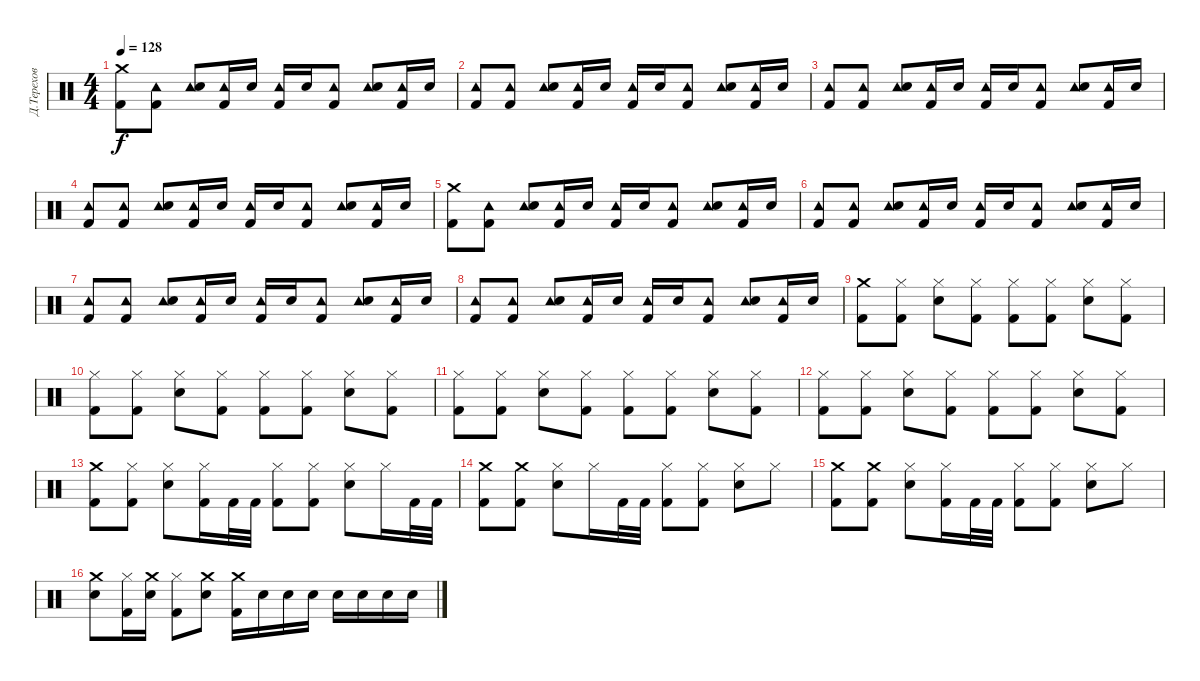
\track ("Д.Терехов" "Д.Терехов") {instrument percussion}
\staff {score}
\articulation defaults
\ts (4 4)
\tempo 128
\clef neutral
\ks c
("Crash medium (hit)" "Kick (hit) 2").8{dy f} ("Tambourine (hit)" "Kick (hit) 2").8 ("Tambourine (hit)" "Electric Snare (hit)").8 ("Tambourine (hit)" "Kick (hit) 2").16 "Electric Snare (hit)".16 ("Tambourine (hit)" "Kick (hit) 2").16 "Electric Snare (hit)".16 ("Tambourine (hit)" "Kick (hit) 2").8 ("Tambourine (hit)" "Electric Snare (hit)").8 ("Tambourine (hit)" "Kick (hit) 2").16 "Electric Snare (hit)".16 |
("Tambourine (hit)" "Kick (hit) 2").8 ("Tambourine (hit)" "Kick (hit) 2").8 ("Tambourine (hit)" "Electric Snare (hit)").8 ("Tambourine (hit)" "Kick (hit) 2").16 "Electric Snare (hit)".16 ("Tambourine (hit)" "Kick (hit) 2").16 "Electric Snare (hit)".16 ("Tambourine (hit)" "Kick (hit) 2").8 ("Tambourine (hit)" "Electric Snare (hit)").8 ("Tambourine (hit)" "Kick (hit) 2").16 "Electric Snare (hit)".16 |
("Tambourine (hit)" "Kick (hit) 2").8 ("Tambourine (hit)" "Kick (hit) 2").8 ("Tambourine (hit)" "Electric Snare (hit)").8 ("Tambourine (hit)" "Kick (hit) 2").16 "Electric Snare (hit)".16 ("Tambourine (hit)" "Kick (hit) 2").16 "Electric Snare (hit)".16 ("Tambourine (hit)" "Kick (hit) 2").8 ("Tambourine (hit)" "Electric Snare (hit)").8 ("Tambourine (hit)" "Kick (hit) 2").16 "Electric Snare (hit)".16 |
("Tambourine (hit)" "Kick (hit) 2").8 ("Tambourine (hit)" "Kick (hit) 2").8 ("Tambourine (hit)" "Electric Snare (hit)").8 ("Tambourine (hit)" "Kick (hit) 2").16 "Electric Snare (hit)".16 ("Tambourine (hit)" "Kick (hit) 2").16 "Electric Snare (hit)".16 ("Tambourine (hit)" "Kick (hit) 2").8 ("Tambourine (hit)" "Electric Snare (hit)").8 ("Tambourine (hit)" "Kick (hit) 2").16 "Electric Snare (hit)".16 |
("Crash medium (hit)" "Kick (hit) 2").8 ("Tambourine (hit)" "Kick (hit) 2").8 ("Tambourine (hit)" "Electric Snare (hit)").8 ("Tambourine (hit)" "Kick (hit) 2").16 "Electric Snare (hit)".16 ("Tambourine (hit)" "Kick (hit) 2").16 "Electric Snare (hit)".16 ("Tambourine (hit)" "Kick (hit) 2").8 ("Tambourine (hit)" "Electric Snare (hit)").8 ("Tambourine (hit)" "Kick (hit) 2").16 "Electric Snare (hit)".16 |
("Tambourine (hit)" "Kick (hit) 2").8 ("Tambourine (hit)" "Kick (hit) 2").8 ("Tambourine (hit)" "Electric Snare (hit)").8 ("Tambourine (hit)" "Kick (hit) 2").16 "Electric Snare (hit)".16 ("Tambourine (hit)" "Kick (hit) 2").16 "Electric Snare (hit)".16 ("Tambourine (hit)" "Kick (hit) 2").8 ("Tambourine (hit)" "Electric Snare (hit)").8 ("Tambourine (hit)" "Kick (hit) 2").16 "Electric Snare (hit)".16 |
("Tambourine (hit)" "Kick (hit) 2").8 ("Tambourine (hit)" "Kick (hit) 2").8 ("Tambourine (hit)" "Electric Snare (hit)").8 ("Tambourine (hit)" "Kick (hit) 2").16 "Electric Snare (hit)".16 ("Tambourine (hit)" "Kick (hit) 2").16 "Electric Snare (hit)".16 ("Tambourine (hit)" "Kick (hit) 2").8 ("Tambourine (hit)" "Electric Snare (hit)").8 ("Tambourine (hit)" "Kick (hit) 2").16 "Electric Snare (hit)".16 |
("Tambourine (hit)" "Kick (hit) 2").8 ("Tambourine (hit)" "Kick (hit) 2").8 ("Tambourine (hit)" "Electric Snare (hit)").8 ("Tambourine (hit)" "Kick (hit) 2").16 "Electric Snare (hit)".16 ("Tambourine (hit)" "Kick (hit) 2").16 "Electric Snare (hit)".16 ("Tambourine (hit)" "Kick (hit) 2").8 ("Tambourine (hit)" "Electric Snare (hit)").8 ("Tambourine (hit)" "Kick (hit) 2").16 "Electric Snare (hit)".16 |
("Crash medium (hit)" "Kick (hit) 2").8 ("Hi-Hat (closed)" "Kick (hit) 2").8 ("Hi-Hat (closed)" "Electric Snare (hit)").8 ("Hi-Hat (closed)" "Kick (hit) 2").8 ("Hi-Hat (closed)" "Kick (hit) 2").8 ("Hi-Hat (closed)" "Kick (hit) 2").8 ("Hi-Hat (closed)" "Electric Snare (hit)").8 ("Hi-Hat (closed)" "Kick (hit) 2").8 |
("Hi-Hat (closed)" "Kick (hit) 2").8 ("Hi-Hat (closed)" "Kick (hit) 2").8 ("Hi-Hat (closed)" "Electric Snare (hit)").8 ("Hi-Hat (closed)" "Kick (hit) 2").8 ("Hi-Hat (closed)" "Kick (hit) 2").8 ("Hi-Hat (closed)" "Kick (hit) 2").8 ("Hi-Hat (closed)" "Electric Snare (hit)").8 ("Hi-Hat (closed)" "Kick (hit) 2").8 |
("Hi-Hat (closed)" "Kick (hit) 2").8 ("Hi-Hat (closed)" "Kick (hit) 2").8 ("Hi-Hat (closed)" "Electric Snare (hit)").8 ("Hi-Hat (closed)" "Kick (hit) 2").8 ("Hi-Hat (closed)" "Kick (hit) 2").8 ("Hi-Hat (closed)" "Kick (hit) 2").8 ("Hi-Hat (closed)" "Electric Snare (hit)").8 ("Hi-Hat (closed)" "Kick (hit) 2").8 |
("Hi-Hat (closed)" "Kick (hit) 2").8 ("Hi-Hat (closed)" "Kick (hit) 2").8 ("Hi-Hat (closed)" "Electric Snare (hit)").8 ("Hi-Hat (closed)" "Kick (hit) 2").8 ("Hi-Hat (closed)" "Kick (hit) 2").8 ("Hi-Hat (closed)" "Kick (hit) 2").8 ("Hi-Hat (closed)" "Electric Snare (hit)").8 ("Hi-Hat (closed)" "Kick (hit) 2").8 |
("Crash medium (hit)" "Kick (hit) 2").8 ("Hi-Hat (closed)" "Kick (hit) 2").8 ("Hi-Hat (closed)" "Electric Snare (hit)").8 ("Hi-Hat (closed)" "Kick (hit) 2").16 "Kick (hit) 2".32 "Kick (hit) 2".32 ("Hi-Hat (closed)" "Kick (hit) 2").8 ("Hi-Hat (closed)" "Kick (hit) 2").8 ("Hi-Hat (closed)" "Electric Snare (hit)").8 "Hi-Hat (closed)".16 "Kick (hit) 2".32 "Kick (hit) 2".32 |
("Crash medium (hit)" "Kick (hit) 2").8 ("Crash medium (hit)" "Kick (hit) 2").8 ("Hi-Hat (closed)" "Electric Snare (hit)").8 "Hi-Hat (closed)".16 "Kick (hit) 2".32 "Kick (hit) 2".32 ("Hi-Hat (closed)" "Kick (hit) 2").8 ("Hi-Hat (closed)" "Kick (hit) 2").8 ("Hi-Hat (closed)" "Electric Snare (hit)").8 "Hi-Hat (closed)".8 |
("Crash medium (hit)" "Kick (hit) 2").8 ("Crash medium (hit)" "Kick (hit) 2").8 ("Hi-Hat (closed)" "Electric Snare (hit)").8 ("Hi-Hat (closed)" "Kick (hit) 2").16 "Kick (hit) 2".32 "Kick (hit) 2".32 ("Hi-Hat (closed)" "Kick (hit) 2").8 ("Hi-Hat (closed)" "Kick (hit) 2").8 ("Hi-Hat (closed)" "Electric Snare (hit)").8 "Hi-Hat (closed)".8 |
("Crash medium (hit)" "Electric Snare (hit)").8 ("Hi-Hat (closed)" "Kick (hit) 2").16 ("Crash medium (hit)" "Electric Snare (hit)").16 ("Hi-Hat (closed)" "Kick (hit) 2").8 ("Crash medium (hit)" "Electric Snare (hit)").8 ("Crash medium (hit)" "Kick (hit) 2").16 "Electric Snare (hit)".16 "Electric Snare (hit)".16 "Electric Snare (hit)".16 "Electric Snare (hit)".16 "Electric Snare (hit)".16 "Electric Snare (hit)".16 "Electric Snare (hit)".16
